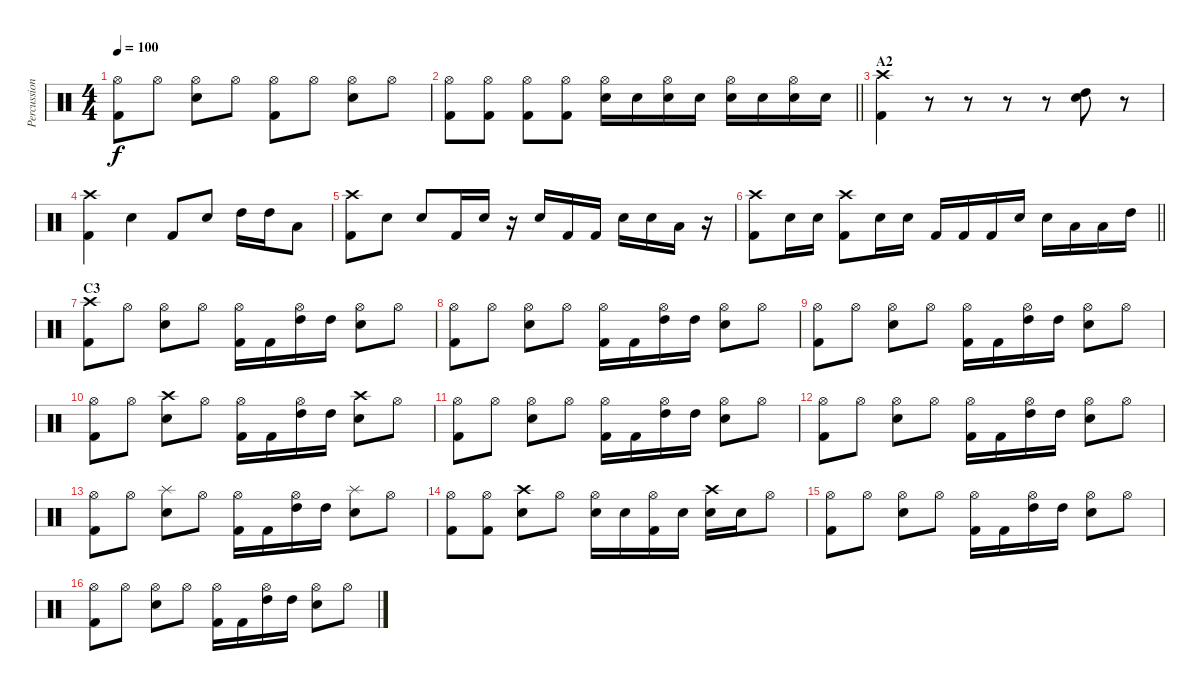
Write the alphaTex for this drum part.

\track ("Percussion" "Percussion") {instrument percussion}
\staff {score}
\articulation defaults
\ts (4 4)
\tempo 100
\clef neutral
\ks c
("Hi-Hat (open)" "Kick (hit) 2").8{dy f} "Hi-Hat (open)".8 ("Hi-Hat (open)" "Snare (hit) 2").8 "Hi-Hat (open)".8 ("Hi-Hat (open)" "Kick (hit) 2").8 "Hi-Hat (open)".8 ("Hi-Hat (open)" "Snare (hit) 2").8 "Hi-Hat (open)".8 |
\barLineRight lightlight
("Hi-Hat (open)" "Kick (hit) 2").8 ("Hi-Hat (open)" "Kick (hit) 2").8 ("Hi-Hat (open)" "Kick (hit) 2").8 ("Hi-Hat (open)" "Kick (hit) 2").8 ("Hi-Hat (open)" "Snare (hit) 2").16 "Snare (hit) 2".16 ("Hi-Hat (open)" "Snare (hit) 2").16 "Snare (hit) 2".16 ("Hi-Hat (open)" "Snare (hit) 2").16 "Snare (hit) 2".16 ("Hi-Hat (open)" "Snare (hit) 2").16 "Snare (hit) 2".16 |
\section ("" "A2")
("Crash high (hit)" "Kick (hit) 2").4 r.8 r.8 r.8 r.8 ("High Tom (hit)" "Snare (hit) 2").8 r.8 |
("Crash high (hit)" "Kick (hit) 2").4 "Snare (hit) 2".4 "Kick (hit) 2".8 "Snare (hit) 2".8 "High Tom (hit)".16 "High Tom (hit)".16 "Low Tom (hit)".8 |
("Crash high (hit)" "Kick (hit) 2").8 "Snare (hit) 2".8 "Snare (hit) 2".8 "Kick (hit) 2".16 "Snare (hit) 2".16 r.16 "Snare (hit) 2".16 "Kick (hit) 2".16 "Kick (hit) 2".16 "Snare (hit) 2".16 "Snare (hit) 2".16 "Low Tom (hit)".16 r.16 |
\barLineRight lightlight
("Crash high (hit)" "Kick (hit) 2").8 "Snare (hit) 2".16 "Snare (hit) 2".16 ("Crash high (hit)" "Kick (hit) 2").8 "Snare (hit) 2".16 "Snare (hit) 2".16 "Kick (hit) 2".16 "Kick (hit) 2".16 "Kick (hit) 2".16 "Snare (hit) 2".16 "Snare (hit) 2".16 "Low Tom (hit)".16 "Low Tom (hit)".16 "High Tom (hit)".16 |
\section ("" "C3")
("Crash high (hit)" "Kick (hit) 2").8 "Hi-Hat (open)".8 ("Hi-Hat (open)" "Snare (hit) 2").8 "Hi-Hat (open)".8 ("Hi-Hat (open)" "Kick (hit) 2").16 "Kick (hit) 2".16 ("Hi-Hat (open)" "High Tom (hit)").16 "High Tom (hit)".16 ("Hi-Hat (open)" "Snare (hit) 2").8 "Hi-Hat (open)".8 |
("Hi-Hat (open)" "Kick (hit) 2").8 "Hi-Hat (open)".8 ("Hi-Hat (open)" "Snare (hit) 2").8 "Hi-Hat (open)".8 ("Hi-Hat (open)" "Kick (hit) 2").16 "Kick (hit) 2".16 ("Hi-Hat (open)" "High Tom (hit)").16 "High Tom (hit)".16 ("Hi-Hat (open)" "Snare (hit) 2").8 "Hi-Hat (open)".8 |
("Hi-Hat (open)" "Kick (hit) 2").8 "Hi-Hat (open)".8 ("Hi-Hat (open)" "Snare (hit) 2").8 "Hi-Hat (open)".8 ("Hi-Hat (open)" "Kick (hit) 2").16 "Kick (hit) 2".16 ("Hi-Hat (open)" "High Tom (hit)").16 "High Tom (hit)".16 ("Hi-Hat (open)" "Snare (hit) 2").8 "Hi-Hat (open)".8 |
("Hi-Hat (open)" "Kick (hit) 2").8 "Hi-Hat (open)".8 ("Crash high (hit)" "Snare (hit) 2").8 "Hi-Hat (open)".8 ("Hi-Hat (open)" "Kick (hit) 2").16 "Kick (hit) 2".16 ("Hi-Hat (open)" "High Tom (hit)").16 "High Tom (hit)".16 ("Crash high (hit)" "Snare (hit) 2").8 "Hi-Hat (open)".8 |
("Hi-Hat (open)" "Kick (hit) 2").8 "Hi-Hat (open)".8 ("Hi-Hat (open)" "Snare (hit) 2").8 "Hi-Hat (open)".8 ("Hi-Hat (open)" "Kick (hit) 2").16 "Kick (hit) 2".16 ("Hi-Hat (open)" "High Tom (hit)").16 "High Tom (hit)".16 ("Hi-Hat (open)" "Snare (hit) 2").8 "Hi-Hat (open)".8 |
("Hi-Hat (open)" "Kick (hit) 2").8 "Hi-Hat (open)".8 ("Hi-Hat (open)" "Snare (hit) 2").8 "Hi-Hat (open)".8 ("Hi-Hat (open)" "Kick (hit) 2").16 "Kick (hit) 2".16 ("Hi-Hat (open)" "High Tom (hit)").16 "High Tom (hit)".16 ("Hi-Hat (open)" "Snare (hit) 2").8 "Hi-Hat (open)".8 |
("Hi-Hat (open)" "Kick (hit) 2").8 "Hi-Hat (open)".8 ("Splash (hit)" "Snare (hit) 2").8 "Hi-Hat (open)".8 ("Hi-Hat (open)" "Kick (hit) 2").16 "Kick (hit) 2".16 ("Hi-Hat (open)" "High Tom (hit)").16 "High Tom (hit)".16 ("Splash (hit)" "Snare (hit) 2").8 "Hi-Hat (open)".8 |
("Hi-Hat (open)" "Kick (hit) 2").8 ("Hi-Hat (open)" "Kick (hit) 2").8 ("Crash high (hit)" "Snare (hit) 2").8 "Hi-Hat (open)".8 ("Hi-Hat (open)" "Snare (hit) 2").16 "Snare (hit) 2".16 ("Hi-Hat (open)" "Kick (hit) 2").16 "Snare (hit) 2".16 ("Crash high (hit)" "Snare (hit) 2").16 "Snare (hit) 2".16 "Hi-Hat (open)".8 |
("Hi-Hat (open)" "Kick (hit) 2").8 "Hi-Hat (open)".8 ("Hi-Hat (open)" "Snare (hit) 2").8 "Hi-Hat (open)".8 ("Hi-Hat (open)" "Kick (hit) 2").16 "Kick (hit) 2".16 ("Hi-Hat (open)" "High Tom (hit)").16 "High Tom (hit)".16 ("Hi-Hat (open)" "Snare (hit) 2").8 "Hi-Hat (open)".8 |
("Hi-Hat (open)" "Kick (hit) 2").8 "Hi-Hat (open)".8 ("Hi-Hat (open)" "Snare (hit) 2").8 "Hi-Hat (open)".8 ("Hi-Hat (open)" "Kick (hit) 2").16 "Kick (hit) 2".16 ("Hi-Hat (open)" "High Tom (hit)").16 "High Tom (hit)".16 ("Hi-Hat (open)" "Snare (hit) 2").8 "Hi-Hat (open)".8
